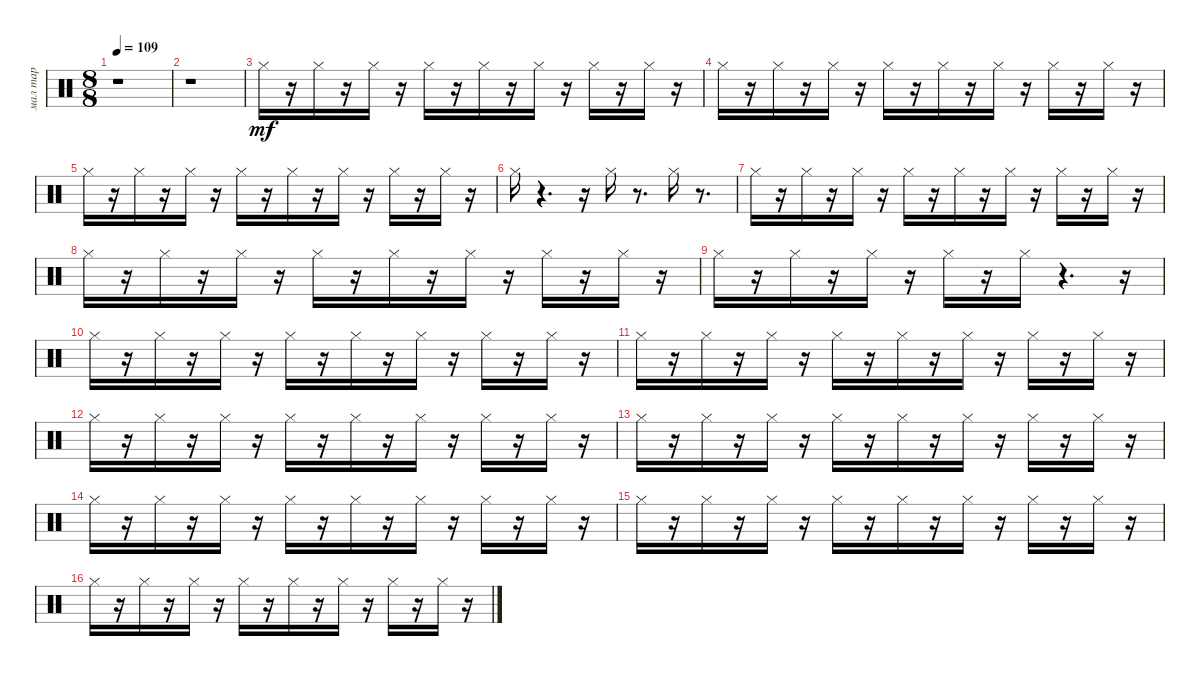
\track ("мал тар" "мал тар") {instrument percussion}
\staff {score}
\articulation defaults
\ts (8 8)
\tempo 109
\clef neutral
\ks c
r.1{dy mf} |
r.1 |
"Hi-Hat (closed)".16 r.16 "Hi-Hat (closed)".16 r.16 "Hi-Hat (closed)".16 r.16 "Hi-Hat (closed)".16 r.16 "Hi-Hat (closed)".16 r.16 "Hi-Hat (closed)".16 r.16 "Hi-Hat (closed)".16 r.16 "Hi-Hat (closed)".16 r.16 |
"Hi-Hat (closed)".16 r.16 "Hi-Hat (closed)".16 r.16 "Hi-Hat (closed)".16 r.16 "Hi-Hat (closed)".16 r.16 "Hi-Hat (closed)".16 r.16 "Hi-Hat (closed)".16 r.16 "Hi-Hat (closed)".16 r.16 "Hi-Hat (closed)".16 r.16 |
"Hi-Hat (closed)".16 r.16 "Hi-Hat (closed)".16 r.16 "Hi-Hat (closed)".16 r.16 "Hi-Hat (closed)".16 r.16 "Hi-Hat (closed)".16 r.16 "Hi-Hat (closed)".16 r.16 "Hi-Hat (closed)".16 r.16 "Hi-Hat (closed)".16 r.16 |
"Hi-Hat (closed)".16 r.4{d} r.16 "Hi-Hat (closed)".16 r.8{d} "Hi-Hat (closed)".16 r.8{d} |
"Hi-Hat (closed)".16 r.16 "Hi-Hat (closed)".16 r.16 "Hi-Hat (closed)".16 r.16 "Hi-Hat (closed)".16 r.16 "Hi-Hat (closed)".16 r.16 "Hi-Hat (closed)".16 r.16 "Hi-Hat (closed)".16 r.16 "Hi-Hat (closed)".16 r.16 |
"Hi-Hat (closed)".16 r.16 "Hi-Hat (closed)".16 r.16 "Hi-Hat (closed)".16 r.16 "Hi-Hat (closed)".16 r.16 "Hi-Hat (closed)".16 r.16 "Hi-Hat (closed)".16 r.16 "Hi-Hat (closed)".16 r.16 "Hi-Hat (closed)".16 r.16 |
"Hi-Hat (closed)".16 r.16 "Hi-Hat (closed)".16 r.16 "Hi-Hat (closed)".16 r.16 "Hi-Hat (closed)".16 r.16 "Hi-Hat (closed)".16 r.4{d} r.16 |
"Hi-Hat (closed)".16 r.16 "Hi-Hat (closed)".16 r.16 "Hi-Hat (closed)".16 r.16 "Hi-Hat (closed)".16 r.16 "Hi-Hat (closed)".16 r.16 "Hi-Hat (closed)".16 r.16 "Hi-Hat (closed)".16 r.16 "Hi-Hat (closed)".16 r.16 |
"Hi-Hat (closed)".16 r.16 "Hi-Hat (closed)".16 r.16 "Hi-Hat (closed)".16 r.16 "Hi-Hat (closed)".16 r.16 "Hi-Hat (closed)".16 r.16 "Hi-Hat (closed)".16 r.16 "Hi-Hat (closed)".16 r.16 "Hi-Hat (closed)".16 r.16 |
"Hi-Hat (closed)".16 r.16 "Hi-Hat (closed)".16 r.16 "Hi-Hat (closed)".16 r.16 "Hi-Hat (closed)".16 r.16 "Hi-Hat (closed)".16 r.16 "Hi-Hat (closed)".16 r.16 "Hi-Hat (closed)".16 r.16 "Hi-Hat (closed)".16 r.16 |
"Hi-Hat (closed)".16 r.16 "Hi-Hat (closed)".16 r.16 "Hi-Hat (closed)".16 r.16 "Hi-Hat (closed)".16 r.16 "Hi-Hat (closed)".16 r.16 "Hi-Hat (closed)".16 r.16 "Hi-Hat (closed)".16 r.16 "Hi-Hat (closed)".16 r.16 |
"Hi-Hat (closed)".16 r.16 "Hi-Hat (closed)".16 r.16 "Hi-Hat (closed)".16 r.16 "Hi-Hat (closed)".16 r.16 "Hi-Hat (closed)".16 r.16 "Hi-Hat (closed)".16 r.16 "Hi-Hat (closed)".16 r.16 "Hi-Hat (closed)".16 r.16 |
"Hi-Hat (closed)".16 r.16 "Hi-Hat (closed)".16 r.16 "Hi-Hat (closed)".16 r.16 "Hi-Hat (closed)".16 r.16 "Hi-Hat (closed)".16 r.16 "Hi-Hat (closed)".16 r.16 "Hi-Hat (closed)".16 r.16 "Hi-Hat (closed)".16 r.16 |
"Hi-Hat (closed)".16 r.16 "Hi-Hat (closed)".16 r.16 "Hi-Hat (closed)".16 r.16 "Hi-Hat (closed)".16 r.16 "Hi-Hat (closed)".16 r.16 "Hi-Hat (closed)".16 r.16 "Hi-Hat (closed)".16 r.16 "Hi-Hat (closed)".16 r.16
